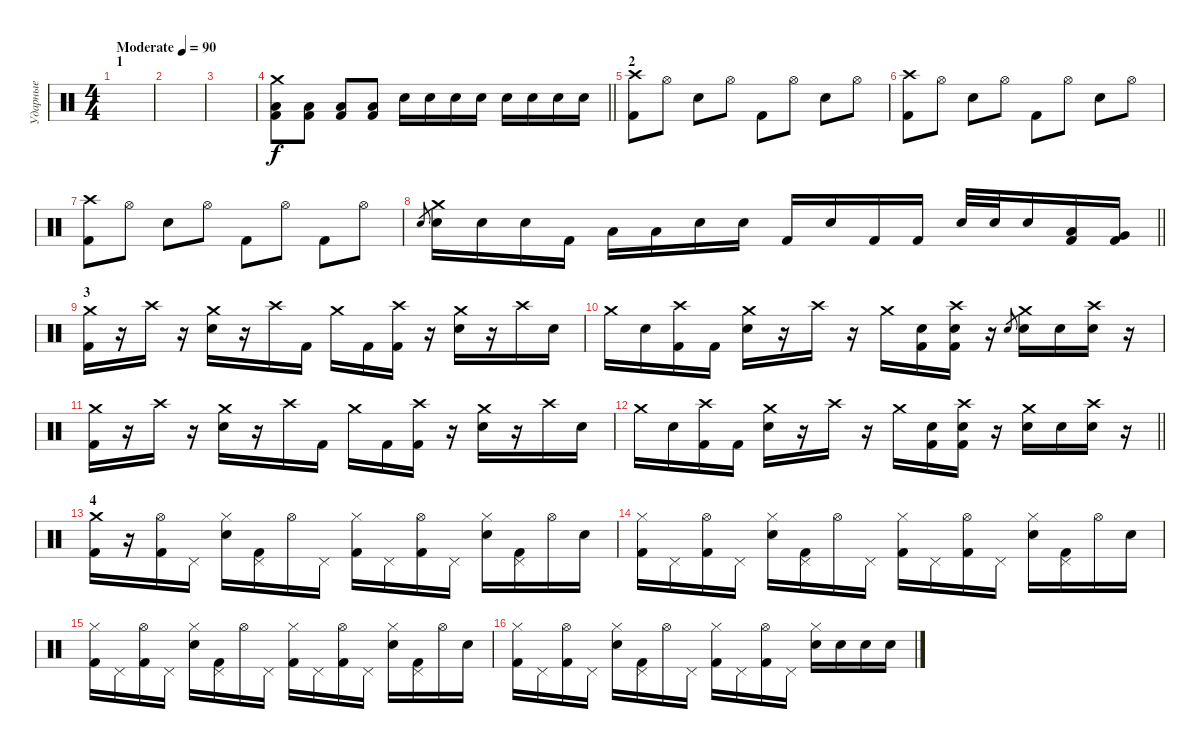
\track ("Ударные" "Ударные") {instrument percussion}
\staff {score}
\articulation defaults
\ts (4 4)
\section ("" "1")
\tempo (90 "Moderate")
\clef neutral
\ks c
|
|
|
\barLineRight lightlight
("Crash medium (hit)" "Low Tom (hit)" "Kick (hit) 2").8 ("Low Tom (hit)" "Kick (hit) 2").8 ("Low Tom (hit)" "Kick (hit) 2").8 ("Low Tom (hit)" "Kick (hit) 2").8 "Snare (hit) 2".16 "Snare (hit) 2".16 "Snare (hit) 2".16 "Snare (hit) 2".16 "Snare (hit) 2".16 "Snare (hit) 2".16 "Snare (hit) 2".16 "Snare (hit) 2".16 |
\section ("" "2")
("Crash high (hit)" "Kick (hit) 2").8 "Hi-Hat (open)".8 "Snare (hit) 2".8 "Hi-Hat (open)".8 "Kick (hit) 2".8 "Hi-Hat (open)".8 "Snare (hit) 2".8 "Hi-Hat (open)".8 |
("Crash high (hit)" "Kick (hit) 2").8 "Hi-Hat (open)".8 "Snare (hit) 2".8 "Hi-Hat (open)".8 "Kick (hit) 2".8 "Hi-Hat (open)".8 "Snare (hit) 2".8 "Hi-Hat (open)".8 |
("Crash high (hit)" "Kick (hit) 2").8 "Hi-Hat (open)".8 "Snare (hit) 2".8 "Hi-Hat (open)".8 "Kick (hit) 2".8 "Hi-Hat (open)".8 "Kick (hit) 2".8 "Hi-Hat (open)".8 |
\barLineRight lightlight "Electric Snare (hit)".8{gr}
("Crash medium (hit)" "Electric Snare (hit)").16 "Electric Snare (hit)".16 "Electric Snare (hit)".16 "Kick (hit) 2".16 "Low Tom (hit)".16 "Low Tom (hit)".16 "Electric Snare (hit)".16 "Electric Snare (hit)".16 "Kick (hit) 2".16 "Electric Snare (hit)".16 "Kick (hit) 2".16 "Kick (hit) 2".16 "Electric Snare (hit)".32 "Electric Snare (hit)".32 "Electric Snare (hit)".16 ("Low Tom (hit)" "Kick (hit) 2").16 ("Very Low Tom (hit)" "Kick (hit) 2").16 |
\section ("" "3")
("Crash medium (hit)" "Kick (hit) 2").16 r.16 "Crash high (hit)".16 r.16 ("Crash medium (hit)" "Snare (hit) 2").16 r.16 "Crash high (hit)".16 "Kick (hit) 2".16 "Crash medium (hit)".16 "Kick (hit) 2".16 ("Crash high (hit)" "Kick (hit) 2").16 r.16 ("Crash medium (hit)" "Snare (hit) 2").16 r.16 "Crash high (hit)".16 "Snare (hit) 2".16 |
"Crash medium (hit)".16 "Snare (hit) 2".16 ("Crash high (hit)" "Kick (hit) 2").16 "Kick (hit) 2".16 ("Crash medium (hit)" "Snare (hit) 2").16 r.16 "Crash high (hit)".16 r.16 "Crash medium (hit)".16 ("Snare (hit) 2" "Kick (hit) 2").16 ("Crash high (hit)" "Snare (hit) 2" "Kick (hit) 2").16 r.16 "Snare (hit) 2".8{gr} ("Crash medium (hit)" "Snare (hit) 2").16 "Snare (hit) 2".16 ("Crash high (hit)" "Snare (hit) 2").16 r.16 |
("Crash medium (hit)" "Kick (hit) 2").16 r.16 "Crash high (hit)".16 r.16 ("Crash medium (hit)" "Snare (hit) 2").16 r.16 "Crash high (hit)".16 "Kick (hit) 2".16 "Crash medium (hit)".16 "Kick (hit) 2".16 ("Crash high (hit)" "Kick (hit) 2").16 r.16 ("Crash medium (hit)" "Snare (hit) 2").16 r.16 "Crash high (hit)".16 "Snare (hit) 2".16 |
\barLineRight lightlight "Crash medium (hit)".16 "Snare (hit) 2".16
("Crash high (hit)" "Kick (hit) 2").16 "Kick (hit) 2".16 ("Crash medium (hit)" "Snare (hit) 2").16 r.16 "Crash high (hit)".16 r.16 "Crash medium (hit)".16 ("Snare (hit) 2" "Kick (hit) 2").16 ("Crash high (hit)" "Snare (hit) 2" "Kick (hit) 2").16 r.16 ("Crash medium (hit)" "Snare (hit) 2").16 "Snare (hit) 2".16 ("Crash high (hit)" "Snare (hit) 2").16 r.16 |
\section ("" "4")
("Crash medium (hit)" "Kick (hit) 2").16 r.16 ("Hi-Hat (open)" "Kick (hit) 2").16 "Pedal Hi-Hat (hit)".16 ("Hi-Hat (closed)" "Electric Snare (hit)").16 ("Pedal Hi-Hat (hit)" "Kick (hit) 2").16 "Hi-Hat (open)".16 "Pedal Hi-Hat (hit)".16 ("Hi-Hat (closed)" "Kick (hit) 2").16 "Pedal Hi-Hat (hit)".16 ("Hi-Hat (open)" "Kick (hit) 2").16 "Pedal Hi-Hat (hit)".16 ("Hi-Hat (closed)" "Electric Snare (hit)").16 ("Pedal Hi-Hat (hit)" "Kick (hit) 2").16 "Hi-Hat (open)".16 "Electric Snare (hit)".16 |
("Hi-Hat (closed)" "Kick (hit) 2").16 "Pedal Hi-Hat (hit)".16 ("Hi-Hat (open)" "Kick (hit) 2").16 "Pedal Hi-Hat (hit)".16 ("Hi-Hat (closed)" "Electric Snare (hit)").16 ("Pedal Hi-Hat (hit)" "Kick (hit) 2").16 "Hi-Hat (open)".16 "Pedal Hi-Hat (hit)".16 ("Hi-Hat (closed)" "Kick (hit) 2").16 "Pedal Hi-Hat (hit)".16 ("Hi-Hat (open)" "Kick (hit) 2").16 "Pedal Hi-Hat (hit)".16 ("Hi-Hat (closed)" "Electric Snare (hit)").16 ("Pedal Hi-Hat (hit)" "Kick (hit) 2").16 "Hi-Hat (open)".16 "Electric Snare (hit)".16 |
("Hi-Hat (closed)" "Kick (hit) 2").16 "Pedal Hi-Hat (hit)".16 ("Hi-Hat (open)" "Kick (hit) 2").16 "Pedal Hi-Hat (hit)".16 ("Hi-Hat (closed)" "Electric Snare (hit)").16 ("Pedal Hi-Hat (hit)" "Kick (hit) 2").16 "Hi-Hat (open)".16 "Pedal Hi-Hat (hit)".16 ("Hi-Hat (closed)" "Kick (hit) 2").16 "Pedal Hi-Hat (hit)".16 ("Hi-Hat (open)" "Kick (hit) 2").16 "Pedal Hi-Hat (hit)".16 ("Hi-Hat (closed)" "Electric Snare (hit)").16 ("Pedal Hi-Hat (hit)" "Kick (hit) 2").16 "Hi-Hat (open)".16 "Electric Snare (hit)".16 |
("Hi-Hat (closed)" "Kick (hit) 2").16 "Pedal Hi-Hat (hit)".16 ("Hi-Hat (open)" "Kick (hit) 2").16 "Pedal Hi-Hat (hit)".16 ("Hi-Hat (closed)" "Electric Snare (hit)").16 ("Pedal Hi-Hat (hit)" "Kick (hit) 2").16 "Hi-Hat (open)".16 "Pedal Hi-Hat (hit)".16 ("Hi-Hat (closed)" "Kick (hit) 2").16 "Pedal Hi-Hat (hit)".16 ("Hi-Hat (open)" "Kick (hit) 2").16 "Pedal Hi-Hat (hit)".16 ("Hi-Hat (closed)" "Electric Snare (hit)").16 "Electric Snare (hit)".16 "Electric Snare (hit)".16 "Electric Snare (hit)".16
